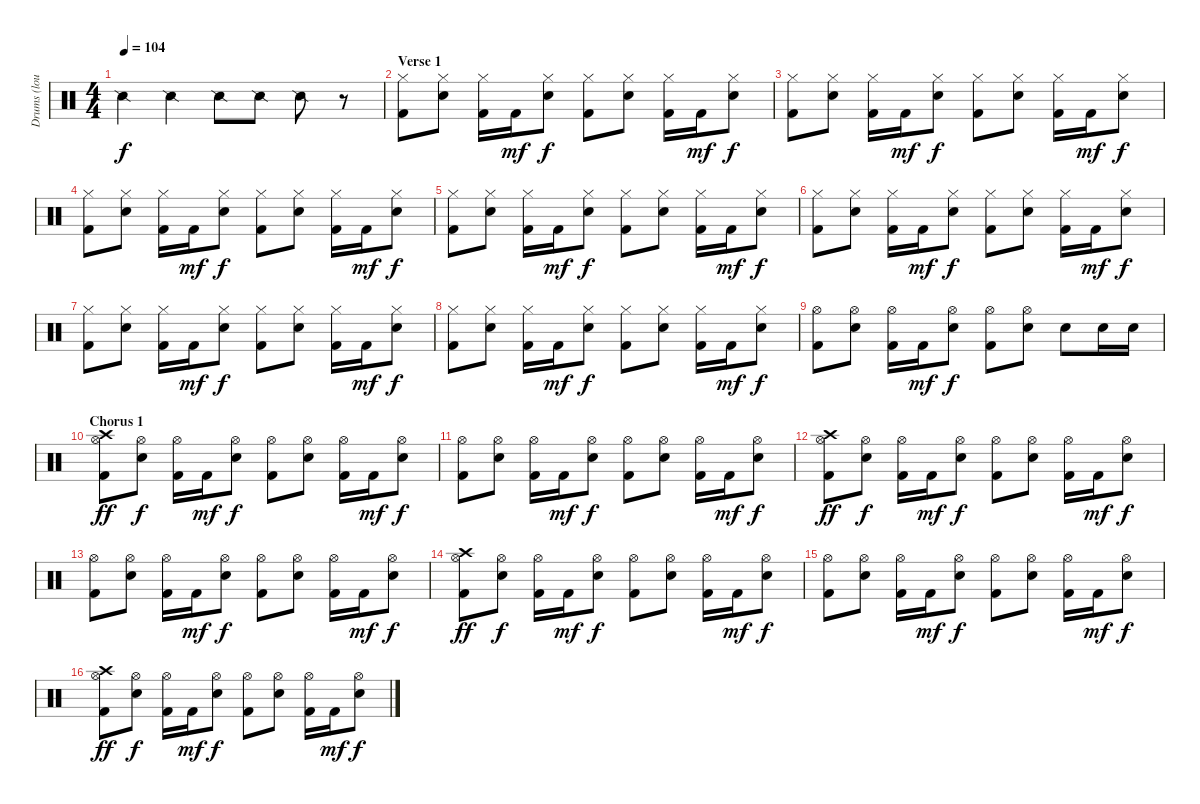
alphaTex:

\track ("Drums (loud!)" "Drums (lou") {instrument percussion}
\staff {score}
\articulation defaults
\ts (4 4)
\tempo 104
\clef neutral
\ks c "Snare (side stick) 2".4{dy f} "Snare (side stick) 2".4 "Snare (side stick) 2".8 "Snare (side stick) 2".8 "Snare (side stick) 2".8
r.8 |
\section ("" "Verse 1")
("Hi-Hat (closed)" "Kick (hit) 2").8 ("Hi-Hat (closed)" "Snare (hit) 2").8 ("Hi-Hat (closed)" "Kick (hit) 2").16 "Kick (hit) 2".16{dy mf} ("Hi-Hat (closed)" "Snare (hit) 2").8{dy f} ("Hi-Hat (closed)" "Kick (hit) 2").8 ("Hi-Hat (closed)" "Snare (hit) 2").8 ("Hi-Hat (closed)" "Kick (hit) 2").16 "Kick (hit) 2".16{dy mf} ("Hi-Hat (closed)" "Snare (hit) 2").8{dy f} |
("Hi-Hat (closed)" "Kick (hit) 2").8 ("Hi-Hat (closed)" "Snare (hit) 2").8 ("Hi-Hat (closed)" "Kick (hit) 2").16 "Kick (hit) 2".16{dy mf} ("Hi-Hat (closed)" "Snare (hit) 2").8{dy f} ("Hi-Hat (closed)" "Kick (hit) 2").8 ("Hi-Hat (closed)" "Snare (hit) 2").8 ("Hi-Hat (closed)" "Kick (hit) 2").16 "Kick (hit) 2".16{dy mf} ("Hi-Hat (closed)" "Snare (hit) 2").8{dy f} |
("Hi-Hat (closed)" "Kick (hit) 2").8 ("Hi-Hat (closed)" "Snare (hit) 2").8 ("Hi-Hat (closed)" "Kick (hit) 2").16 "Kick (hit) 2".16{dy mf} ("Hi-Hat (closed)" "Snare (hit) 2").8{dy f} ("Hi-Hat (closed)" "Kick (hit) 2").8 ("Hi-Hat (closed)" "Snare (hit) 2").8 ("Hi-Hat (closed)" "Kick (hit) 2").16 "Kick (hit) 2".16{dy mf} ("Hi-Hat (closed)" "Snare (hit) 2").8{dy f} |
("Hi-Hat (closed)" "Kick (hit) 2").8 ("Hi-Hat (closed)" "Snare (hit) 2").8 ("Hi-Hat (closed)" "Kick (hit) 2").16 "Kick (hit) 2".16{dy mf} ("Hi-Hat (closed)" "Snare (hit) 2").8{dy f} ("Hi-Hat (closed)" "Kick (hit) 2").8 ("Hi-Hat (closed)" "Snare (hit) 2").8 ("Hi-Hat (closed)" "Kick (hit) 2").16 "Kick (hit) 2".16{dy mf} ("Hi-Hat (closed)" "Snare (hit) 2").8{dy f} |
("Hi-Hat (closed)" "Kick (hit) 2").8 ("Hi-Hat (closed)" "Snare (hit) 2").8 ("Hi-Hat (closed)" "Kick (hit) 2").16 "Kick (hit) 2".16{dy mf} ("Hi-Hat (closed)" "Snare (hit) 2").8{dy f} ("Hi-Hat (closed)" "Kick (hit) 2").8 ("Hi-Hat (closed)" "Snare (hit) 2").8 ("Hi-Hat (closed)" "Kick (hit) 2").16 "Kick (hit) 2".16{dy mf} ("Hi-Hat (closed)" "Snare (hit) 2").8{dy f} |
("Hi-Hat (closed)" "Kick (hit) 2").8 ("Hi-Hat (closed)" "Snare (hit) 2").8 ("Hi-Hat (closed)" "Kick (hit) 2").16 "Kick (hit) 2".16{dy mf} ("Hi-Hat (closed)" "Snare (hit) 2").8{dy f} ("Hi-Hat (closed)" "Kick (hit) 2").8 ("Hi-Hat (closed)" "Snare (hit) 2").8 ("Hi-Hat (closed)" "Kick (hit) 2").16 "Kick (hit) 2".16{dy mf} ("Hi-Hat (closed)" "Snare (hit) 2").8{dy f} |
("Hi-Hat (closed)" "Kick (hit) 2").8 ("Hi-Hat (closed)" "Snare (hit) 2").8 ("Hi-Hat (closed)" "Kick (hit) 2").16 "Kick (hit) 2".16{dy mf} ("Hi-Hat (closed)" "Snare (hit) 2").8{dy f} ("Hi-Hat (closed)" "Kick (hit) 2").8 ("Hi-Hat (closed)" "Snare (hit) 2").8 ("Hi-Hat (closed)" "Kick (hit) 2").16 "Kick (hit) 2".16{dy mf} ("Hi-Hat (closed)" "Snare (hit) 2").8{dy f} |
("Hi-Hat (open)" "Kick (hit) 2").8 ("Hi-Hat (open)" "Snare (hit) 2").8 ("Hi-Hat (open)" "Kick (hit) 2").16 "Kick (hit) 2".16{dy mf} ("Hi-Hat (open)" "Snare (hit) 2").8{dy f} ("Hi-Hat (open)" "Kick (hit) 2").8 ("Hi-Hat (open)" "Snare (hit) 2").8 "Snare (hit) 2".8 "Snare (hit) 2".16 "Snare (hit) 2".16 |
\section ("" "Chorus 1")
("Hi-Hat (open)" "Crash high (hit)" "Kick (hit) 2").8{dy ff} ("Hi-Hat (open)" "Snare (hit) 2").8{dy f} ("Hi-Hat (open)" "Kick (hit) 2").16 "Kick (hit) 2".16{dy mf} ("Hi-Hat (open)" "Snare (hit) 2").8{dy f} ("Hi-Hat (open)" "Kick (hit) 2").8 ("Hi-Hat (open)" "Snare (hit) 2").8 ("Hi-Hat (open)" "Kick (hit) 2").16 "Kick (hit) 2".16{dy mf} ("Hi-Hat (open)" "Snare (hit) 2").8{dy f} |
("Hi-Hat (open)" "Kick (hit) 2").8 ("Hi-Hat (open)" "Snare (hit) 2").8 ("Hi-Hat (open)" "Kick (hit) 2").16 "Kick (hit) 2".16{dy mf} ("Hi-Hat (open)" "Snare (hit) 2").8{dy f} ("Hi-Hat (open)" "Kick (hit) 2").8 ("Hi-Hat (open)" "Snare (hit) 2").8 ("Hi-Hat (open)" "Kick (hit) 2").16 "Kick (hit) 2".16{dy mf} ("Hi-Hat (open)" "Snare (hit) 2").8{dy f} |
("Hi-Hat (open)" "Crash high (hit)" "Kick (hit) 2").8{dy ff} ("Hi-Hat (open)" "Snare (hit) 2").8{dy f} ("Hi-Hat (open)" "Kick (hit) 2").16 "Kick (hit) 2".16{dy mf} ("Hi-Hat (open)" "Snare (hit) 2").8{dy f} ("Hi-Hat (open)" "Kick (hit) 2").8 ("Hi-Hat (open)" "Snare (hit) 2").8 ("Hi-Hat (open)" "Kick (hit) 2").16 "Kick (hit) 2".16{dy mf} ("Hi-Hat (open)" "Snare (hit) 2").8{dy f} |
("Hi-Hat (open)" "Kick (hit) 2").8 ("Hi-Hat (open)" "Snare (hit) 2").8 ("Hi-Hat (open)" "Kick (hit) 2").16 "Kick (hit) 2".16{dy mf} ("Hi-Hat (open)" "Snare (hit) 2").8{dy f} ("Hi-Hat (open)" "Kick (hit) 2").8 ("Hi-Hat (open)" "Snare (hit) 2").8 ("Hi-Hat (open)" "Kick (hit) 2").16 "Kick (hit) 2".16{dy mf} ("Hi-Hat (open)" "Snare (hit) 2").8{dy f} |
("Hi-Hat (open)" "Crash high (hit)" "Kick (hit) 2").8{dy ff} ("Hi-Hat (open)" "Snare (hit) 2").8{dy f} ("Hi-Hat (open)" "Kick (hit) 2").16 "Kick (hit) 2".16{dy mf} ("Hi-Hat (open)" "Snare (hit) 2").8{dy f} ("Hi-Hat (open)" "Kick (hit) 2").8 ("Hi-Hat (open)" "Snare (hit) 2").8 ("Hi-Hat (open)" "Kick (hit) 2").16 "Kick (hit) 2".16{dy mf} ("Hi-Hat (open)" "Snare (hit) 2").8{dy f} |
("Hi-Hat (open)" "Kick (hit) 2").8 ("Hi-Hat (open)" "Snare (hit) 2").8 ("Hi-Hat (open)" "Kick (hit) 2").16 "Kick (hit) 2".16{dy mf} ("Hi-Hat (open)" "Snare (hit) 2").8{dy f} ("Hi-Hat (open)" "Kick (hit) 2").8 ("Hi-Hat (open)" "Snare (hit) 2").8 ("Hi-Hat (open)" "Kick (hit) 2").16 "Kick (hit) 2".16{dy mf} ("Hi-Hat (open)" "Snare (hit) 2").8{dy f} |
("Hi-Hat (open)" "Crash high (hit)" "Kick (hit) 2").8{dy ff} ("Hi-Hat (open)" "Snare (hit) 2").8{dy f} ("Hi-Hat (open)" "Kick (hit) 2").16 "Kick (hit) 2".16{dy mf} ("Hi-Hat (open)" "Snare (hit) 2").8{dy f} ("Hi-Hat (open)" "Kick (hit) 2").8 ("Hi-Hat (open)" "Snare (hit) 2").8 ("Hi-Hat (open)" "Kick (hit) 2").16 "Kick (hit) 2".16{dy mf} ("Hi-Hat (open)" "Snare (hit) 2").8{dy f}
